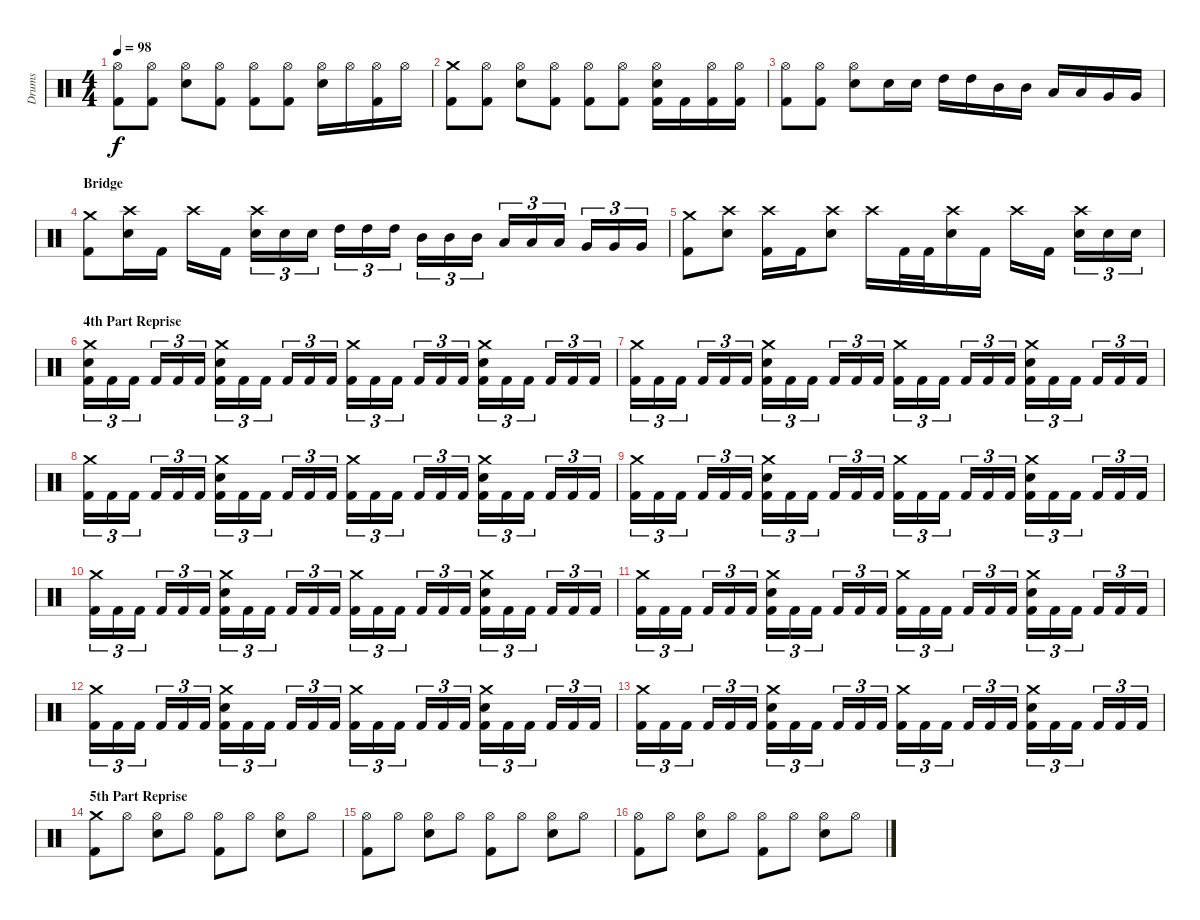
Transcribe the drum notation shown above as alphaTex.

\track ("Drums" "Drums") {instrument percussion}
\staff {score}
\articulation defaults
\ts (4 4)
\tempo 98
\clef neutral
\ks c
("Kick (hit) 2" "Hi-Hat (open)").8{dy f} ("Kick (hit) 2" "Hi-Hat (open)").8 ("Electric Snare (hit)" "Hi-Hat (open)").8 ("Kick (hit) 2" "Hi-Hat (open)").8 ("Kick (hit) 2" "Hi-Hat (open)").8 ("Kick (hit) 2" "Hi-Hat (open)").8 ("Electric Snare (hit)" "Hi-Hat (open)").16 "Hi-Hat (open)".16 ("Kick (hit) 2" "Hi-Hat (open)").16 "Hi-Hat (open)".16 |
("Kick (hit) 2" "Crash medium (hit)").8 ("Kick (hit) 2" "Hi-Hat (open)").8 ("Electric Snare (hit)" "Hi-Hat (open)").8 ("Kick (hit) 2" "Hi-Hat (open)").8 ("Kick (hit) 2" "Hi-Hat (open)").8 ("Kick (hit) 2" "Hi-Hat (open)").8 ("Kick (hit) 2" "Electric Snare (hit)" "Hi-Hat (open)").16 "Kick (hit) 2".16 ("Kick (hit) 2" "Hi-Hat (open)").16 ("Kick (hit) 2" "Hi-Hat (open)").16 |
("Kick (hit) 2" "Hi-Hat (open)").8 ("Kick (hit) 2" "Hi-Hat (open)").8 ("Electric Snare (hit)" "Hi-Hat (open)").8 "Electric Snare (hit)".16 "Electric Snare (hit)".16 "High Tom (hit)".16 "High Tom (hit)".16 "Mid Tom (hit)".16 "Mid Tom (hit)".16 "Low Tom (hit)".16 "Low Tom (hit)".16 "Very Low Tom (hit)".16 "Very Low Tom (hit)".16 |
\section ("" "Bridge")
("Kick (hit) 2" "Crash medium (hit)").8 ("Electric Snare (hit)" "Crash high (hit)").16 "Kick (hit) 2".16 "Crash high (hit)".16 "Kick (hit) 2".16 ("Electric Snare (hit)" "Crash high (hit)").16{tu (3 2)} "Electric Snare (hit)".16{tu (3 2)} "Electric Snare (hit)".16{tu (3 2)} "High Tom (hit)".16{tu (3 2)} "High Tom (hit)".16{tu (3 2)} "High Tom (hit)".16{tu (3 2)} "Mid Tom (hit)".16{tu (3 2)} "Mid Tom (hit)".16{tu (3 2)} "Mid Tom (hit)".16{tu (3 2)} "Low Tom (hit)".16{tu (3 2)} "Low Tom (hit)".16{tu (3 2)} "Low Tom (hit)".16{tu (3 2)} "Very Low Tom (hit)".16{tu (3 2)} "Very Low Tom (hit)".16{tu (3 2)} "Very Low Tom (hit)".16{tu (3 2)} |
("Kick (hit) 2" "Crash medium (hit)").8 ("Electric Snare (hit)" "Crash high (hit)").8 ("Kick (hit) 2" "Crash high (hit)").16 "Kick (hit) 2".16 ("Electric Snare (hit)" "Crash high (hit)").8 "Crash high (hit)".16 "Kick (hit) 2".32 "Kick (hit) 2".32 ("Electric Snare (hit)" "Crash high (hit)").16 "Kick (hit) 2".16 "Crash high (hit)".16 "Kick (hit) 2".16 ("Electric Snare (hit)" "Crash high (hit)").16{tu (3 2)} "Electric Snare (hit)".16{tu (3 2)} "Electric Snare (hit)".16{tu (3 2)} |
\section ("" "4th Part Reprise")
("Kick (hit) 2" "Electric Snare (hit)" "Crash medium (hit)").16{tu (3 2)} "Kick (hit) 2".16{tu (3 2)} "Kick (hit) 2".16{tu (3 2)} "Kick (hit) 2".16{tu (3 2)} "Kick (hit) 2".16{tu (3 2)} "Kick (hit) 2".16{tu (3 2)} ("Kick (hit) 2" "Electric Snare (hit)" "Crash medium (hit)").16{tu (3 2)} "Kick (hit) 2".16{tu (3 2)} "Kick (hit) 2".16{tu (3 2)} "Kick (hit) 2".16{tu (3 2)} "Kick (hit) 2".16{tu (3 2)} "Kick (hit) 2".16{tu (3 2)} ("Kick (hit) 2" "Crash medium (hit)").16{tu (3 2)} "Kick (hit) 2".16{tu (3 2)} "Kick (hit) 2".16{tu (3 2)} "Kick (hit) 2".16{tu (3 2)} "Kick (hit) 2".16{tu (3 2)} "Kick (hit) 2".16{tu (3 2)} ("Kick (hit) 2" "Electric Snare (hit)" "Crash medium (hit)").16{tu (3 2)} "Kick (hit) 2".16{tu (3 2)} "Kick (hit) 2".16{tu (3 2)} "Kick (hit) 2".16{tu (3 2)} "Kick (hit) 2".16{tu (3 2)} "Kick (hit) 2".16{tu (3 2)} |
("Kick (hit) 2" "Crash medium (hit)").16{tu (3 2)} "Kick (hit) 2".16{tu (3 2)} "Kick (hit) 2".16{tu (3 2)} "Kick (hit) 2".16{tu (3 2)} "Kick (hit) 2".16{tu (3 2)} "Kick (hit) 2".16{tu (3 2)} ("Kick (hit) 2" "Electric Snare (hit)" "Crash medium (hit)").16{tu (3 2)} "Kick (hit) 2".16{tu (3 2)} "Kick (hit) 2".16{tu (3 2)} "Kick (hit) 2".16{tu (3 2)} "Kick (hit) 2".16{tu (3 2)} "Kick (hit) 2".16{tu (3 2)} ("Kick (hit) 2" "Crash medium (hit)").16{tu (3 2)} "Kick (hit) 2".16{tu (3 2)} "Kick (hit) 2".16{tu (3 2)} "Kick (hit) 2".16{tu (3 2)} "Kick (hit) 2".16{tu (3 2)} "Kick (hit) 2".16{tu (3 2)} ("Kick (hit) 2" "Electric Snare (hit)" "Crash medium (hit)").16{tu (3 2)} "Kick (hit) 2".16{tu (3 2)} "Kick (hit) 2".16{tu (3 2)} "Kick (hit) 2".16{tu (3 2)} "Kick (hit) 2".16{tu (3 2)} "Kick (hit) 2".16{tu (3 2)} |
("Kick (hit) 2" "Crash medium (hit)").16{tu (3 2)} "Kick (hit) 2".16{tu (3 2)} "Kick (hit) 2".16{tu (3 2)} "Kick (hit) 2".16{tu (3 2)} "Kick (hit) 2".16{tu (3 2)} "Kick (hit) 2".16{tu (3 2)} ("Kick (hit) 2" "Electric Snare (hit)" "Crash medium (hit)").16{tu (3 2)} "Kick (hit) 2".16{tu (3 2)} "Kick (hit) 2".16{tu (3 2)} "Kick (hit) 2".16{tu (3 2)} "Kick (hit) 2".16{tu (3 2)} "Kick (hit) 2".16{tu (3 2)} ("Kick (hit) 2" "Crash medium (hit)").16{tu (3 2)} "Kick (hit) 2".16{tu (3 2)} "Kick (hit) 2".16{tu (3 2)} "Kick (hit) 2".16{tu (3 2)} "Kick (hit) 2".16{tu (3 2)} "Kick (hit) 2".16{tu (3 2)} ("Kick (hit) 2" "Electric Snare (hit)" "Crash medium (hit)").16{tu (3 2)} "Kick (hit) 2".16{tu (3 2)} "Kick (hit) 2".16{tu (3 2)} "Kick (hit) 2".16{tu (3 2)} "Kick (hit) 2".16{tu (3 2)} "Kick (hit) 2".16{tu (3 2)} |
("Kick (hit) 2" "Crash medium (hit)").16{tu (3 2)} "Kick (hit) 2".16{tu (3 2)} "Kick (hit) 2".16{tu (3 2)} "Kick (hit) 2".16{tu (3 2)} "Kick (hit) 2".16{tu (3 2)} "Kick (hit) 2".16{tu (3 2)} ("Kick (hit) 2" "Electric Snare (hit)" "Crash medium (hit)").16{tu (3 2)} "Kick (hit) 2".16{tu (3 2)} "Kick (hit) 2".16{tu (3 2)} "Kick (hit) 2".16{tu (3 2)} "Kick (hit) 2".16{tu (3 2)} "Kick (hit) 2".16{tu (3 2)} ("Kick (hit) 2" "Crash medium (hit)").16{tu (3 2)} "Kick (hit) 2".16{tu (3 2)} "Kick (hit) 2".16{tu (3 2)} "Kick (hit) 2".16{tu (3 2)} "Kick (hit) 2".16{tu (3 2)} "Kick (hit) 2".16{tu (3 2)} ("Kick (hit) 2" "Electric Snare (hit)" "Crash medium (hit)").16{tu (3 2)} "Kick (hit) 2".16{tu (3 2)} "Kick (hit) 2".16{tu (3 2)} "Kick (hit) 2".16{tu (3 2)} "Kick (hit) 2".16{tu (3 2)} "Kick (hit) 2".16{tu (3 2)} |
("Kick (hit) 2" "Crash medium (hit)").16{tu (3 2)} "Kick (hit) 2".16{tu (3 2)} "Kick (hit) 2".16{tu (3 2)} "Kick (hit) 2".16{tu (3 2)} "Kick (hit) 2".16{tu (3 2)} "Kick (hit) 2".16{tu (3 2)} ("Kick (hit) 2" "Electric Snare (hit)" "Crash medium (hit)").16{tu (3 2)} "Kick (hit) 2".16{tu (3 2)} "Kick (hit) 2".16{tu (3 2)} "Kick (hit) 2".16{tu (3 2)} "Kick (hit) 2".16{tu (3 2)} "Kick (hit) 2".16{tu (3 2)} ("Kick (hit) 2" "Crash medium (hit)").16{tu (3 2)} "Kick (hit) 2".16{tu (3 2)} "Kick (hit) 2".16{tu (3 2)} "Kick (hit) 2".16{tu (3 2)} "Kick (hit) 2".16{tu (3 2)} "Kick (hit) 2".16{tu (3 2)} ("Kick (hit) 2" "Electric Snare (hit)" "Crash medium (hit)").16{tu (3 2)} "Kick (hit) 2".16{tu (3 2)} "Kick (hit) 2".16{tu (3 2)} "Kick (hit) 2".16{tu (3 2)} "Kick (hit) 2".16{tu (3 2)} "Kick (hit) 2".16{tu (3 2)} |
("Kick (hit) 2" "Crash medium (hit)").16{tu (3 2)} "Kick (hit) 2".16{tu (3 2)} "Kick (hit) 2".16{tu (3 2)} "Kick (hit) 2".16{tu (3 2)} "Kick (hit) 2".16{tu (3 2)} "Kick (hit) 2".16{tu (3 2)} ("Kick (hit) 2" "Electric Snare (hit)" "Crash medium (hit)").16{tu (3 2)} "Kick (hit) 2".16{tu (3 2)} "Kick (hit) 2".16{tu (3 2)} "Kick (hit) 2".16{tu (3 2)} "Kick (hit) 2".16{tu (3 2)} "Kick (hit) 2".16{tu (3 2)} ("Kick (hit) 2" "Crash medium (hit)").16{tu (3 2)} "Kick (hit) 2".16{tu (3 2)} "Kick (hit) 2".16{tu (3 2)} "Kick (hit) 2".16{tu (3 2)} "Kick (hit) 2".16{tu (3 2)} "Kick (hit) 2".16{tu (3 2)} ("Kick (hit) 2" "Electric Snare (hit)" "Crash medium (hit)").16{tu (3 2)} "Kick (hit) 2".16{tu (3 2)} "Kick (hit) 2".16{tu (3 2)} "Kick (hit) 2".16{tu (3 2)} "Kick (hit) 2".16{tu (3 2)} "Kick (hit) 2".16{tu (3 2)} |
("Kick (hit) 2" "Crash medium (hit)").16{tu (3 2)} "Kick (hit) 2".16{tu (3 2)} "Kick (hit) 2".16{tu (3 2)} "Kick (hit) 2".16{tu (3 2)} "Kick (hit) 2".16{tu (3 2)} "Kick (hit) 2".16{tu (3 2)} ("Kick (hit) 2" "Electric Snare (hit)" "Crash medium (hit)").16{tu (3 2)} "Kick (hit) 2".16{tu (3 2)} "Kick (hit) 2".16{tu (3 2)} "Kick (hit) 2".16{tu (3 2)} "Kick (hit) 2".16{tu (3 2)} "Kick (hit) 2".16{tu (3 2)} ("Kick (hit) 2" "Crash medium (hit)").16{tu (3 2)} "Kick (hit) 2".16{tu (3 2)} "Kick (hit) 2".16{tu (3 2)} "Kick (hit) 2".16{tu (3 2)} "Kick (hit) 2".16{tu (3 2)} "Kick (hit) 2".16{tu (3 2)} ("Kick (hit) 2" "Electric Snare (hit)" "Crash medium (hit)").16{tu (3 2)} "Kick (hit) 2".16{tu (3 2)} "Kick (hit) 2".16{tu (3 2)} "Kick (hit) 2".16{tu (3 2)} "Kick (hit) 2".16{tu (3 2)} "Kick (hit) 2".16{tu (3 2)} |
("Kick (hit) 2" "Crash medium (hit)").16{tu (3 2)} "Kick (hit) 2".16{tu (3 2)} "Kick (hit) 2".16{tu (3 2)} "Kick (hit) 2".16{tu (3 2)} "Kick (hit) 2".16{tu (3 2)} "Kick (hit) 2".16{tu (3 2)} ("Kick (hit) 2" "Electric Snare (hit)" "Crash medium (hit)").16{tu (3 2)} "Kick (hit) 2".16{tu (3 2)} "Kick (hit) 2".16{tu (3 2)} "Kick (hit) 2".16{tu (3 2)} "Kick (hit) 2".16{tu (3 2)} "Kick (hit) 2".16{tu (3 2)} ("Kick (hit) 2" "Crash medium (hit)").16{tu (3 2)} "Kick (hit) 2".16{tu (3 2)} "Kick (hit) 2".16{tu (3 2)} "Kick (hit) 2".16{tu (3 2)} "Kick (hit) 2".16{tu (3 2)} "Kick (hit) 2".16{tu (3 2)} ("Kick (hit) 2" "Electric Snare (hit)" "Crash medium (hit)").16{tu (3 2)} "Kick (hit) 2".16{tu (3 2)} "Kick (hit) 2".16{tu (3 2)} "Kick (hit) 2".16{tu (3 2)} "Kick (hit) 2".16{tu (3 2)} "Kick (hit) 2".16{tu (3 2)} |
\section ("" "5th Part Reprise")
("Kick (hit) 2" "Crash medium (hit)").8 "Hi-Hat (open)".8 ("Electric Snare (hit)" "Hi-Hat (open)").8 "Hi-Hat (open)".8 ("Kick (hit) 2" "Hi-Hat (open)").8 "Hi-Hat (open)".8 ("Electric Snare (hit)" "Hi-Hat (open)").8 "Hi-Hat (open)".8 |
("Kick (hit) 2" "Hi-Hat (open)").8 "Hi-Hat (open)".8 ("Electric Snare (hit)" "Hi-Hat (open)").8 "Hi-Hat (open)".8 ("Kick (hit) 2" "Hi-Hat (open)").8 "Hi-Hat (open)".8 ("Electric Snare (hit)" "Hi-Hat (open)").8 "Hi-Hat (open)".8 |
("Kick (hit) 2" "Hi-Hat (open)").8 "Hi-Hat (open)".8 ("Electric Snare (hit)" "Hi-Hat (open)").8 "Hi-Hat (open)".8 ("Kick (hit) 2" "Hi-Hat (open)").8 "Hi-Hat (open)".8 ("Electric Snare (hit)" "Hi-Hat (open)").8 "Hi-Hat (open)".8
